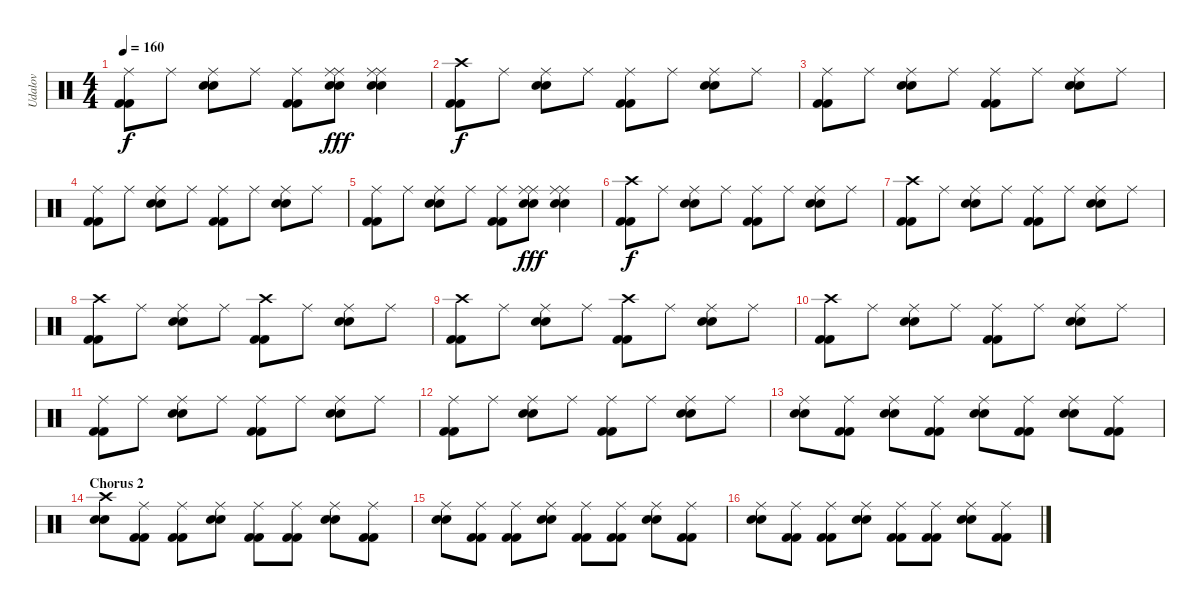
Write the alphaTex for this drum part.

\track ("Udalov" "Udalov") {instrument percussion}
\staff {score}
\articulation defaults
\ts (4 4)
\tempo 160
\clef neutral
\ks c
("Ride (middle)" "Kick (hit) 2" "Kick (hit) 2").8{dy f} "Ride (middle)".8 ("Ride (middle)" "Electric Snare (hit)" "Electric Snare (hit)").8 "Ride (middle)".8 ("Ride (middle)" "Kick (hit) 2" "Kick (hit) 2").8 ("Ride (middle)" "Ride (middle)" "Electric Snare (hit)" "Electric Snare (hit)").8{dy fff} ("Ride (middle)" "Ride (middle)" "Electric Snare (hit)" "Electric Snare (hit)").4 |
("Crash high (hit)" "Kick (hit) 2" "Kick (hit) 2").8{dy f} "Ride (middle)".8 ("Ride (middle)" "Electric Snare (hit)" "Electric Snare (hit)").8 "Ride (middle)".8 ("Ride (middle)" "Kick (hit) 2" "Kick (hit) 2").8 "Ride (middle)".8 ("Ride (middle)" "Electric Snare (hit)" "Electric Snare (hit)").8 "Ride (middle)".8 |
("Ride (middle)" "Kick (hit) 2" "Kick (hit) 2").8 "Ride (middle)".8 ("Ride (middle)" "Electric Snare (hit)" "Electric Snare (hit)").8 "Ride (middle)".8 ("Ride (middle)" "Kick (hit) 2" "Kick (hit) 2").8 "Ride (middle)".8 ("Ride (middle)" "Electric Snare (hit)" "Electric Snare (hit)").8 "Ride (middle)".8 |
("Ride (middle)" "Kick (hit) 2" "Kick (hit) 2").8 "Ride (middle)".8 ("Ride (middle)" "Electric Snare (hit)" "Electric Snare (hit)").8 "Ride (middle)".8 ("Ride (middle)" "Kick (hit) 2" "Kick (hit) 2").8 "Ride (middle)".8 ("Ride (middle)" "Electric Snare (hit)" "Electric Snare (hit)").8 "Ride (middle)".8 |
("Ride (middle)" "Kick (hit) 2" "Kick (hit) 2").8 "Ride (middle)".8 ("Ride (middle)" "Electric Snare (hit)" "Electric Snare (hit)").8 "Ride (middle)".8 ("Ride (middle)" "Kick (hit) 2" "Kick (hit) 2").8 ("Ride (middle)" "Ride (middle)" "Electric Snare (hit)" "Electric Snare (hit)").8{dy fff} ("Ride (middle)" "Ride (middle)" "Electric Snare (hit)" "Electric Snare (hit)").4 |
("Crash high (hit)" "Kick (hit) 2" "Kick (hit) 2").8{dy f} "Ride (middle)".8 ("Ride (middle)" "Electric Snare (hit)" "Electric Snare (hit)").8 "Ride (middle)".8 ("Ride (middle)" "Kick (hit) 2" "Kick (hit) 2").8 "Ride (middle)".8 ("Ride (middle)" "Electric Snare (hit)" "Electric Snare (hit)").8 "Ride (middle)".8 |
("Crash high (hit)" "Kick (hit) 2" "Kick (hit) 2").8 "Ride (middle)".8 ("Ride (middle)" "Electric Snare (hit)" "Electric Snare (hit)").8 "Ride (middle)".8 ("Ride (middle)" "Kick (hit) 2" "Kick (hit) 2").8 "Ride (middle)".8 ("Ride (middle)" "Electric Snare (hit)" "Electric Snare (hit)").8 "Ride (middle)".8 |
("Crash high (hit)" "Kick (hit) 2" "Kick (hit) 2").8 "Ride (middle)".8 ("Ride (middle)" "Electric Snare (hit)" "Electric Snare (hit)").8 "Ride (middle)".8 ("Crash high (hit)" "Kick (hit) 2" "Kick (hit) 2").8 "Ride (middle)".8 ("Ride (middle)" "Electric Snare (hit)" "Electric Snare (hit)").8 "Ride (middle)".8 |
("Crash high (hit)" "Kick (hit) 2" "Kick (hit) 2").8 "Ride (middle)".8 ("Ride (middle)" "Electric Snare (hit)" "Electric Snare (hit)").8 "Ride (middle)".8 ("Crash high (hit)" "Kick (hit) 2" "Kick (hit) 2").8 "Ride (middle)".8 ("Ride (middle)" "Electric Snare (hit)" "Electric Snare (hit)").8 "Ride (middle)".8 |
("Crash high (hit)" "Kick (hit) 2" "Kick (hit) 2").8 "Ride (middle)".8 ("Ride (middle)" "Electric Snare (hit)" "Electric Snare (hit)").8 "Ride (middle)".8 ("Ride (middle)" "Kick (hit) 2" "Kick (hit) 2").8 "Ride (middle)".8 ("Ride (middle)" "Electric Snare (hit)" "Electric Snare (hit)").8 "Ride (middle)".8 |
("Ride (middle)" "Kick (hit) 2" "Kick (hit) 2").8 "Ride (middle)".8 ("Ride (middle)" "Electric Snare (hit)" "Electric Snare (hit)").8 "Ride (middle)".8 ("Ride (middle)" "Kick (hit) 2" "Kick (hit) 2").8 "Ride (middle)".8 ("Ride (middle)" "Electric Snare (hit)" "Electric Snare (hit)").8 "Ride (middle)".8 |
("Ride (middle)" "Kick (hit) 2" "Kick (hit) 2").8 "Ride (middle)".8 ("Ride (middle)" "Electric Snare (hit)" "Electric Snare (hit)").8 "Ride (middle)".8 ("Ride (middle)" "Kick (hit) 2" "Kick (hit) 2").8 "Ride (middle)".8 ("Ride (middle)" "Electric Snare (hit)" "Electric Snare (hit)").8 "Ride (middle)".8 |
("Ride (middle)" "Electric Snare (hit)" "Electric Snare (hit)").8 ("Ride (middle)" "Kick (hit) 2" "Kick (hit) 2").8 ("Ride (middle)" "Electric Snare (hit)" "Electric Snare (hit)").8 ("Ride (middle)" "Kick (hit) 2" "Kick (hit) 2").8 ("Ride (middle)" "Electric Snare (hit)" "Electric Snare (hit)").8 ("Ride (middle)" "Kick (hit) 2" "Kick (hit) 2").8 ("Ride (middle)" "Electric Snare (hit)" "Electric Snare (hit)").8 ("Ride (middle)" "Kick (hit) 2" "Kick (hit) 2").8 |
\section ("" "Chorus 2")
("Crash high (hit)" "Electric Snare (hit)" "Electric Snare (hit)").8 ("Ride (middle)" "Kick (hit) 2" "Kick (hit) 2").8 ("Ride (middle)" "Kick (hit) 2" "Kick (hit) 2").8 ("Ride (middle)" "Electric Snare (hit)" "Electric Snare (hit)").8 ("Ride (middle)" "Kick (hit) 2" "Kick (hit) 2").8 ("Ride (middle)" "Kick (hit) 2" "Kick (hit) 2").8 ("Ride (middle)" "Electric Snare (hit)" "Electric Snare (hit)").8 ("Ride (middle)" "Kick (hit) 2" "Kick (hit) 2").8 |
("Ride (middle)" "Electric Snare (hit)" "Electric Snare (hit)").8 ("Ride (middle)" "Kick (hit) 2" "Kick (hit) 2").8 ("Ride (middle)" "Kick (hit) 2" "Kick (hit) 2").8 ("Ride (middle)" "Electric Snare (hit)" "Electric Snare (hit)").8 ("Ride (middle)" "Kick (hit) 2" "Kick (hit) 2").8 ("Ride (middle)" "Kick (hit) 2" "Kick (hit) 2").8 ("Ride (middle)" "Electric Snare (hit)" "Electric Snare (hit)").8 ("Ride (middle)" "Kick (hit) 2" "Kick (hit) 2").8 |
("Ride (middle)" "Electric Snare (hit)" "Electric Snare (hit)").8 ("Ride (middle)" "Kick (hit) 2" "Kick (hit) 2").8 ("Ride (middle)" "Kick (hit) 2" "Kick (hit) 2").8 ("Ride (middle)" "Electric Snare (hit)" "Electric Snare (hit)").8 ("Ride (middle)" "Kick (hit) 2" "Kick (hit) 2").8 ("Ride (middle)" "Kick (hit) 2" "Kick (hit) 2").8 ("Ride (middle)" "Electric Snare (hit)" "Electric Snare (hit)").8 ("Ride (middle)" "Kick (hit) 2" "Kick (hit) 2").8
